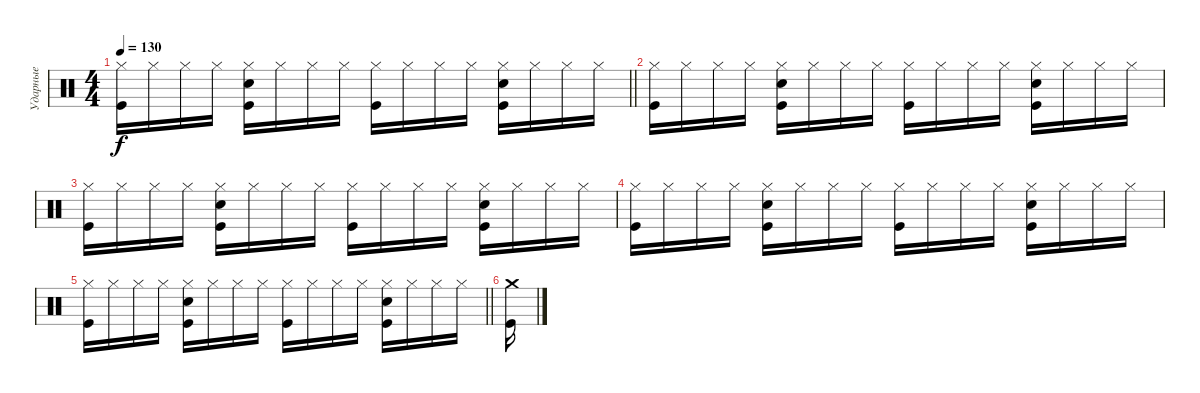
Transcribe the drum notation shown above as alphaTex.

\track ("Ударные" "Ударные") {instrument percussion}
\staff {score}
\articulation defaults
\ts (4 4)
\tempo 130
\clef neutral
\barLineRight lightlight
\ks c
("Hi-Hat (closed)" "Kick (hit)").16{dy f} "Hi-Hat (closed)".16 "Hi-Hat (closed)".16 "Hi-Hat (closed)".16 ("Hi-Hat (closed)" "Kick (hit)" "Snare (hit) 2").16 "Hi-Hat (closed)".16 "Hi-Hat (closed)".16 "Hi-Hat (closed)".16 ("Hi-Hat (closed)" "Kick (hit)").16 "Hi-Hat (closed)".16 "Hi-Hat (closed)".16 "Hi-Hat (closed)".16 ("Hi-Hat (closed)" "Kick (hit)" "Snare (hit) 2").16 "Hi-Hat (closed)".16 "Hi-Hat (closed)".16 "Hi-Hat (closed)".16 |
("Hi-Hat (closed)" "Kick (hit)").16 "Hi-Hat (closed)".16 "Hi-Hat (closed)".16 "Hi-Hat (closed)".16 ("Hi-Hat (closed)" "Kick (hit)" "Snare (hit) 2").16 "Hi-Hat (closed)".16 "Hi-Hat (closed)".16 "Hi-Hat (closed)".16 ("Hi-Hat (closed)" "Kick (hit)").16 "Hi-Hat (closed)".16 "Hi-Hat (closed)".16 "Hi-Hat (closed)".16 ("Hi-Hat (closed)" "Kick (hit)" "Snare (hit) 2").16 "Hi-Hat (closed)".16 "Hi-Hat (closed)".16 "Hi-Hat (closed)".16 |
("Hi-Hat (closed)" "Kick (hit)").16 "Hi-Hat (closed)".16 "Hi-Hat (closed)".16 "Hi-Hat (closed)".16 ("Hi-Hat (closed)" "Kick (hit)" "Snare (hit) 2").16 "Hi-Hat (closed)".16 "Hi-Hat (closed)".16 "Hi-Hat (closed)".16 ("Hi-Hat (closed)" "Kick (hit)").16 "Hi-Hat (closed)".16 "Hi-Hat (closed)".16 "Hi-Hat (closed)".16 ("Hi-Hat (closed)" "Kick (hit)" "Snare (hit) 2").16 "Hi-Hat (closed)".16 "Hi-Hat (closed)".16 "Hi-Hat (closed)".16 |
("Hi-Hat (closed)" "Kick (hit)").16 "Hi-Hat (closed)".16 "Hi-Hat (closed)".16 "Hi-Hat (closed)".16 ("Hi-Hat (closed)" "Kick (hit)" "Snare (hit) 2").16 "Hi-Hat (closed)".16 "Hi-Hat (closed)".16 "Hi-Hat (closed)".16 ("Hi-Hat (closed)" "Kick (hit)").16 "Hi-Hat (closed)".16 "Hi-Hat (closed)".16 "Hi-Hat (closed)".16 ("Hi-Hat (closed)" "Kick (hit)" "Snare (hit) 2").16 "Hi-Hat (closed)".16 "Hi-Hat (closed)".16 "Hi-Hat (closed)".16 |
\barLineRight lightlight
("Hi-Hat (closed)" "Kick (hit)").16 "Hi-Hat (closed)".16 "Hi-Hat (closed)".16 "Hi-Hat (closed)".16 ("Hi-Hat (closed)" "Kick (hit)" "Snare (hit) 2").16 "Hi-Hat (closed)".16 "Hi-Hat (closed)".16 "Hi-Hat (closed)".16 ("Hi-Hat (closed)" "Kick (hit)").16 "Hi-Hat (closed)".16 "Hi-Hat (closed)".16 "Hi-Hat (closed)".16 ("Hi-Hat (closed)" "Kick (hit)" "Snare (hit) 2").16 "Hi-Hat (closed)".16 "Hi-Hat (closed)".16 "Hi-Hat (closed)".16 |
("Crash medium (hit)" "Kick (hit)").16
